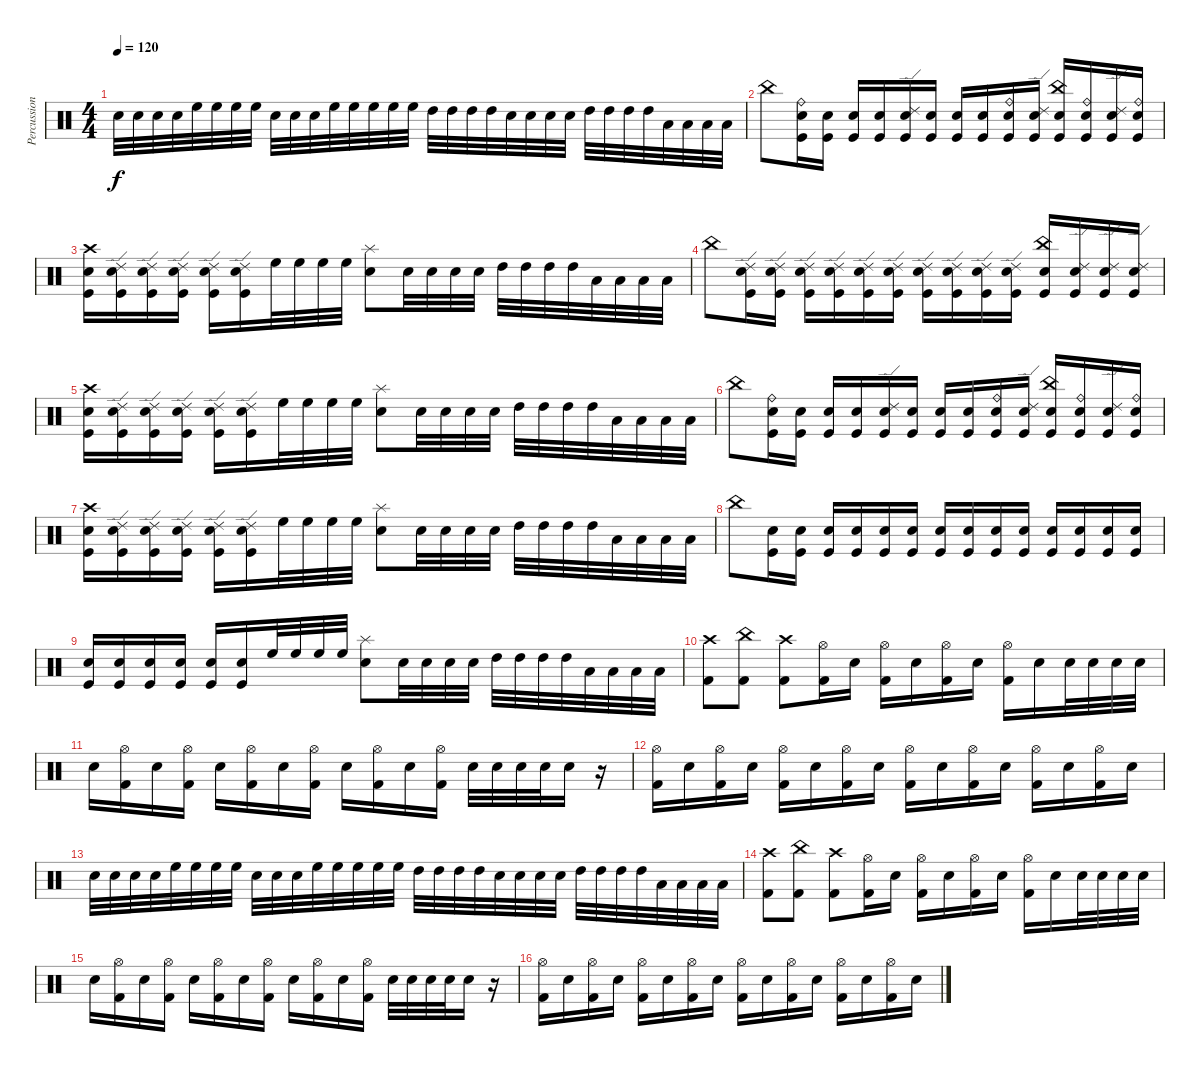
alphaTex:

\track ("Percussion" "Percussion") {instrument percussion}
\staff {score}
\articulation defaults
\ts (4 4)
\tempo 120
\clef neutral
\ks c "Snare (hit) 2".32{dy f} "Snare (hit) 2".32 "Snare (hit) 2".32 "Snare (hit) 2".32 "High Floor Tom (hit)".32 "High Floor Tom (hit)".32 "High Floor Tom (hit)".32 "High Floor Tom (hit)".32 "Snare (hit) 2".32 "Snare (hit) 2".32 "Snare (hit) 2".32 "High Floor Tom (hit)".32 "High Floor Tom (hit)".32 "High Floor Tom (hit)".32 "High Floor Tom (hit)".32 "High Floor Tom (hit)".32 "High Tom (hit)".32 "High Tom (hit)".32 "High Tom (hit)".32 "High Tom (hit)".32 "Snare (hit) 2".32 "Snare (hit) 2".32 "Snare (hit) 2".32 "Snare (hit) 2".32 "High Tom (hit)".32 "High Tom (hit)".32 "High Tom (hit)".32 "High Tom (hit)".32 "Low Tom (hit)".32 "Low Tom (hit)".32 "Low Tom (hit)".32 "Low Tom (hit)".32
|
"China (hit)".8 ("Ride (bell)" "Kick (hit)" "Snare (hit) 2").16 ("Kick (hit)" "Snare (hit) 2").16 ("Kick (hit)" "Snare (hit) 2").16 ("Kick (hit)" "Snare (hit) 2").16 ("Ride (edge) 2" "Kick (hit)" "Snare (hit) 2").16 ("Kick (hit)" "Snare (hit) 2").16 ("Kick (hit)" "Snare (hit) 2").16 ("Kick (hit)" "Snare (hit) 2").16 ("Ride (bell)" "Kick (hit)" "Snare (hit) 2").16 ("Ride (edge) 2" "Kick (hit)" "Snare (hit) 2").16 ("China (hit)" "Kick (hit)" "Snare (hit) 2").16 ("Ride (bell)" "Kick (hit)" "Snare (hit) 2").16 ("Ride (edge) 2" "Kick (hit)" "Snare (hit) 2").16 ("Ride (bell)" "Kick (hit)" "Snare (hit) 2").16 |
("Crash high (hit)" "Kick (hit)" "Snare (hit) 2").16 ("Ride (edge) 2" "Kick (hit)" "Snare (hit) 2").16 ("Ride (edge) 2" "Kick (hit)" "Snare (hit) 2").16 ("Ride (edge) 2" "Kick (hit)" "Snare (hit) 2").16 ("Ride (edge) 2" "Kick (hit)" "Snare (hit) 2").16 ("Ride (edge) 2" "Kick (hit)" "Snare (hit) 2").16 "High Floor Tom (hit)".32 "High Floor Tom (hit)".32 "High Floor Tom (hit)".32 "High Floor Tom (hit)".32 ("Splash (hit)" "Snare (hit) 2").8 "Snare (hit) 2".32 "Snare (hit) 2".32 "Snare (hit) 2".32 "Snare (hit) 2".32 "High Tom (hit)".32 "High Tom (hit)".32 "High Tom (hit)".32 "High Tom (hit)".32 "Low Tom (hit)".32 "Low Tom (hit)".32 "Low Tom (hit)".32 "Low Tom (hit)".32 |
"China (hit)".8 ("Ride (edge) 2" "Kick (hit)" "Snare (hit) 2").16 ("Ride (edge) 2" "Kick (hit)" "Snare (hit) 2").16 ("Ride (edge) 2" "Kick (hit)" "Snare (hit) 2").16 ("Ride (edge) 2" "Kick (hit)" "Snare (hit) 2").16 ("Ride (edge) 2" "Kick (hit)" "Snare (hit) 2").16 ("Ride (edge) 2" "Kick (hit)" "Snare (hit) 2").16 ("Ride (edge) 2" "Kick (hit)" "Snare (hit) 2").16 ("Ride (edge) 2" "Kick (hit)" "Snare (hit) 2").16 ("Ride (edge) 2" "Kick (hit)" "Snare (hit) 2").16 ("Ride (edge) 2" "Kick (hit)" "Snare (hit) 2").16 ("China (hit)" "Kick (hit)" "Snare (hit) 2").16 ("Ride (edge) 2" "Kick (hit)" "Snare (hit) 2").16 ("Ride (edge) 2" "Kick (hit)" "Snare (hit) 2").16 ("Ride (edge) 2" "Kick (hit)" "Snare (hit) 2").16 |
("Crash high (hit)" "Kick (hit)" "Snare (hit) 2").16 ("Ride (edge) 2" "Kick (hit)" "Snare (hit) 2").16 ("Ride (edge) 2" "Kick (hit)" "Snare (hit) 2").16 ("Ride (edge) 2" "Kick (hit)" "Snare (hit) 2").16 ("Ride (edge) 2" "Kick (hit)" "Snare (hit) 2").16 ("Ride (edge) 2" "Kick (hit)" "Snare (hit) 2").16 "High Floor Tom (hit)".32 "High Floor Tom (hit)".32 "High Floor Tom (hit)".32 "High Floor Tom (hit)".32 ("Splash (hit)" "Snare (hit) 2").8 "Snare (hit) 2".32 "Snare (hit) 2".32 "Snare (hit) 2".32 "Snare (hit) 2".32 "High Tom (hit)".32 "High Tom (hit)".32 "High Tom (hit)".32 "High Tom (hit)".32 "Low Tom (hit)".32 "Low Tom (hit)".32 "Low Tom (hit)".32 "Low Tom (hit)".32 |
"China (hit)".8 ("Ride (bell)" "Kick (hit)" "Snare (hit) 2").16 ("Kick (hit)" "Snare (hit) 2").16 ("Kick (hit)" "Snare (hit) 2").16 ("Kick (hit)" "Snare (hit) 2").16 ("Ride (edge) 2" "Kick (hit)" "Snare (hit) 2").16 ("Kick (hit)" "Snare (hit) 2").16 ("Kick (hit)" "Snare (hit) 2").16 ("Kick (hit)" "Snare (hit) 2").16 ("Ride (bell)" "Kick (hit)" "Snare (hit) 2").16 ("Ride (edge) 2" "Kick (hit)" "Snare (hit) 2").16 ("China (hit)" "Kick (hit)" "Snare (hit) 2").16 ("Ride (bell)" "Kick (hit)" "Snare (hit) 2").16 ("Ride (edge) 2" "Kick (hit)" "Snare (hit) 2").16 ("Ride (bell)" "Kick (hit)" "Snare (hit) 2").16 |
("Crash high (hit)" "Kick (hit)" "Snare (hit) 2").16 ("Ride (edge) 2" "Kick (hit)" "Snare (hit) 2").16 ("Ride (edge) 2" "Kick (hit)" "Snare (hit) 2").16 ("Ride (edge) 2" "Kick (hit)" "Snare (hit) 2").16 ("Ride (edge) 2" "Kick (hit)" "Snare (hit) 2").16 ("Ride (edge) 2" "Kick (hit)" "Snare (hit) 2").16 "High Floor Tom (hit)".32 "High Floor Tom (hit)".32 "High Floor Tom (hit)".32 "High Floor Tom (hit)".32 ("Splash (hit)" "Snare (hit) 2").8 "Snare (hit) 2".32 "Snare (hit) 2".32 "Snare (hit) 2".32 "Snare (hit) 2".32 "High Tom (hit)".32 "High Tom (hit)".32 "High Tom (hit)".32 "High Tom (hit)".32 "Low Tom (hit)".32 "Low Tom (hit)".32 "Low Tom (hit)".32 "Low Tom (hit)".32 |
"China (hit)".8 ("Kick (hit)" "Snare (hit) 2").16 ("Kick (hit)" "Snare (hit) 2").16 ("Kick (hit)" "Snare (hit) 2").16 ("Kick (hit)" "Snare (hit) 2").16 ("Kick (hit)" "Snare (hit) 2").16 ("Kick (hit)" "Snare (hit) 2").16 ("Kick (hit)" "Snare (hit) 2").16 ("Kick (hit)" "Snare (hit) 2").16 ("Kick (hit)" "Snare (hit) 2").16 ("Kick (hit)" "Snare (hit) 2").16 ("Kick (hit)" "Snare (hit) 2").16 ("Kick (hit)" "Snare (hit) 2").16 ("Kick (hit)" "Snare (hit) 2").16 ("Kick (hit)" "Snare (hit) 2").16 |
("Kick (hit)" "Snare (hit) 2").16 ("Kick (hit)" "Snare (hit) 2").16 ("Kick (hit)" "Snare (hit) 2").16 ("Kick (hit)" "Snare (hit) 2").16 ("Kick (hit)" "Snare (hit) 2").16 ("Kick (hit)" "Snare (hit) 2").16 "High Floor Tom (hit)".32 "High Floor Tom (hit)".32 "High Floor Tom (hit)".32 "High Floor Tom (hit)".32 ("Splash (hit)" "Snare (hit) 2").8 "Snare (hit) 2".32 "Snare (hit) 2".32 "Snare (hit) 2".32 "Snare (hit) 2".32 "High Tom (hit)".32 "High Tom (hit)".32 "High Tom (hit)".32 "High Tom (hit)".32 "Low Tom (hit)".32 "Low Tom (hit)".32 "Low Tom (hit)".32 "Low Tom (hit)".32 |
("Crash high (hit)" "Kick (hit) 2").8 ("China (hit)" "Kick (hit) 2").8 ("Crash high (hit)" "Kick (hit) 2").8 ("Hi-Hat (open)" "Kick (hit) 2").16 "Snare (hit) 2".16 ("Hi-Hat (open)" "Kick (hit) 2").16 "Snare (hit) 2".16 ("Hi-Hat (open)" "Kick (hit) 2").16 "Snare (hit) 2".16 ("Hi-Hat (open)" "Kick (hit) 2").16 "Snare (hit) 2".16 "Snare (hit) 2".32 "Snare (hit) 2".32 "Snare (hit) 2".32 "Snare (hit) 2".32 |
"Snare (hit) 2".16 ("Hi-Hat (open)" "Kick (hit) 2").16 "Snare (hit) 2".16 ("Hi-Hat (open)" "Kick (hit) 2").16 "Snare (hit) 2".16 ("Hi-Hat (open)" "Kick (hit) 2").16 "Snare (hit) 2".16 ("Hi-Hat (open)" "Kick (hit) 2").16 "Snare (hit) 2".16 ("Hi-Hat (open)" "Kick (hit) 2").16 "Snare (hit) 2".16 ("Hi-Hat (open)" "Kick (hit) 2").16 "Snare (hit) 2".32 "Snare (hit) 2".32 "Snare (hit) 2".32 "Snare (hit) 2".32 "Snare (hit) 2".16 r.16 |
("Hi-Hat (open)" "Kick (hit) 2").16 "Snare (hit) 2".16 ("Hi-Hat (open)" "Kick (hit) 2").16 "Snare (hit) 2".16 ("Hi-Hat (open)" "Kick (hit) 2").16 "Snare (hit) 2".16 ("Hi-Hat (open)" "Kick (hit) 2").16 "Snare (hit) 2".16 ("Hi-Hat (open)" "Kick (hit) 2").16 "Snare (hit) 2".16 ("Hi-Hat (open)" "Kick (hit) 2").16 "Snare (hit) 2".16 ("Hi-Hat (open)" "Kick (hit) 2").16 "Snare (hit) 2".16 ("Hi-Hat (open)" "Kick (hit) 2").16 "Snare (hit) 2".16 |
"Snare (hit) 2".32 "Snare (hit) 2".32 "Snare (hit) 2".32 "Snare (hit) 2".32 "High Floor Tom (hit)".32 "High Floor Tom (hit)".32 "High Floor Tom (hit)".32 "High Floor Tom (hit)".32 "Snare (hit) 2".32 "Snare (hit) 2".32 "Snare (hit) 2".32 "High Floor Tom (hit)".32 "High Floor Tom (hit)".32 "High Floor Tom (hit)".32 "High Floor Tom (hit)".32 "High Floor Tom (hit)".32 "High Tom (hit)".32 "High Tom (hit)".32 "High Tom (hit)".32 "High Tom (hit)".32 "Snare (hit) 2".32 "Snare (hit) 2".32 "Snare (hit) 2".32 "Snare (hit) 2".32 "High Tom (hit)".32 "High Tom (hit)".32 "High Tom (hit)".32 "High Tom (hit)".32 "Low Tom (hit)".32 "Low Tom (hit)".32 "Low Tom (hit)".32 "Low Tom (hit)".32 |
("Crash high (hit)" "Kick (hit) 2").8 ("China (hit)" "Kick (hit) 2").8 ("Crash high (hit)" "Kick (hit) 2").8 ("Hi-Hat (open)" "Kick (hit) 2").16 "Snare (hit) 2".16 ("Hi-Hat (open)" "Kick (hit) 2").16 "Snare (hit) 2".16 ("Hi-Hat (open)" "Kick (hit) 2").16 "Snare (hit) 2".16 ("Hi-Hat (open)" "Kick (hit) 2").16 "Snare (hit) 2".16 "Snare (hit) 2".32 "Snare (hit) 2".32 "Snare (hit) 2".32 "Snare (hit) 2".32 |
"Snare (hit) 2".16 ("Hi-Hat (open)" "Kick (hit) 2").16 "Snare (hit) 2".16 ("Hi-Hat (open)" "Kick (hit) 2").16 "Snare (hit) 2".16 ("Hi-Hat (open)" "Kick (hit) 2").16 "Snare (hit) 2".16 ("Hi-Hat (open)" "Kick (hit) 2").16 "Snare (hit) 2".16 ("Hi-Hat (open)" "Kick (hit) 2").16 "Snare (hit) 2".16 ("Hi-Hat (open)" "Kick (hit) 2").16 "Snare (hit) 2".32 "Snare (hit) 2".32 "Snare (hit) 2".32 "Snare (hit) 2".32 "Snare (hit) 2".16 r.16 |
("Hi-Hat (open)" "Kick (hit) 2").16 "Snare (hit) 2".16 ("Hi-Hat (open)" "Kick (hit) 2").16 "Snare (hit) 2".16 ("Hi-Hat (open)" "Kick (hit) 2").16 "Snare (hit) 2".16 ("Hi-Hat (open)" "Kick (hit) 2").16 "Snare (hit) 2".16 ("Hi-Hat (open)" "Kick (hit) 2").16 "Snare (hit) 2".16 ("Hi-Hat (open)" "Kick (hit) 2").16 "Snare (hit) 2".16 ("Hi-Hat (open)" "Kick (hit) 2").16 "Snare (hit) 2".16 ("Hi-Hat (open)" "Kick (hit) 2").16 "Snare (hit) 2".16
